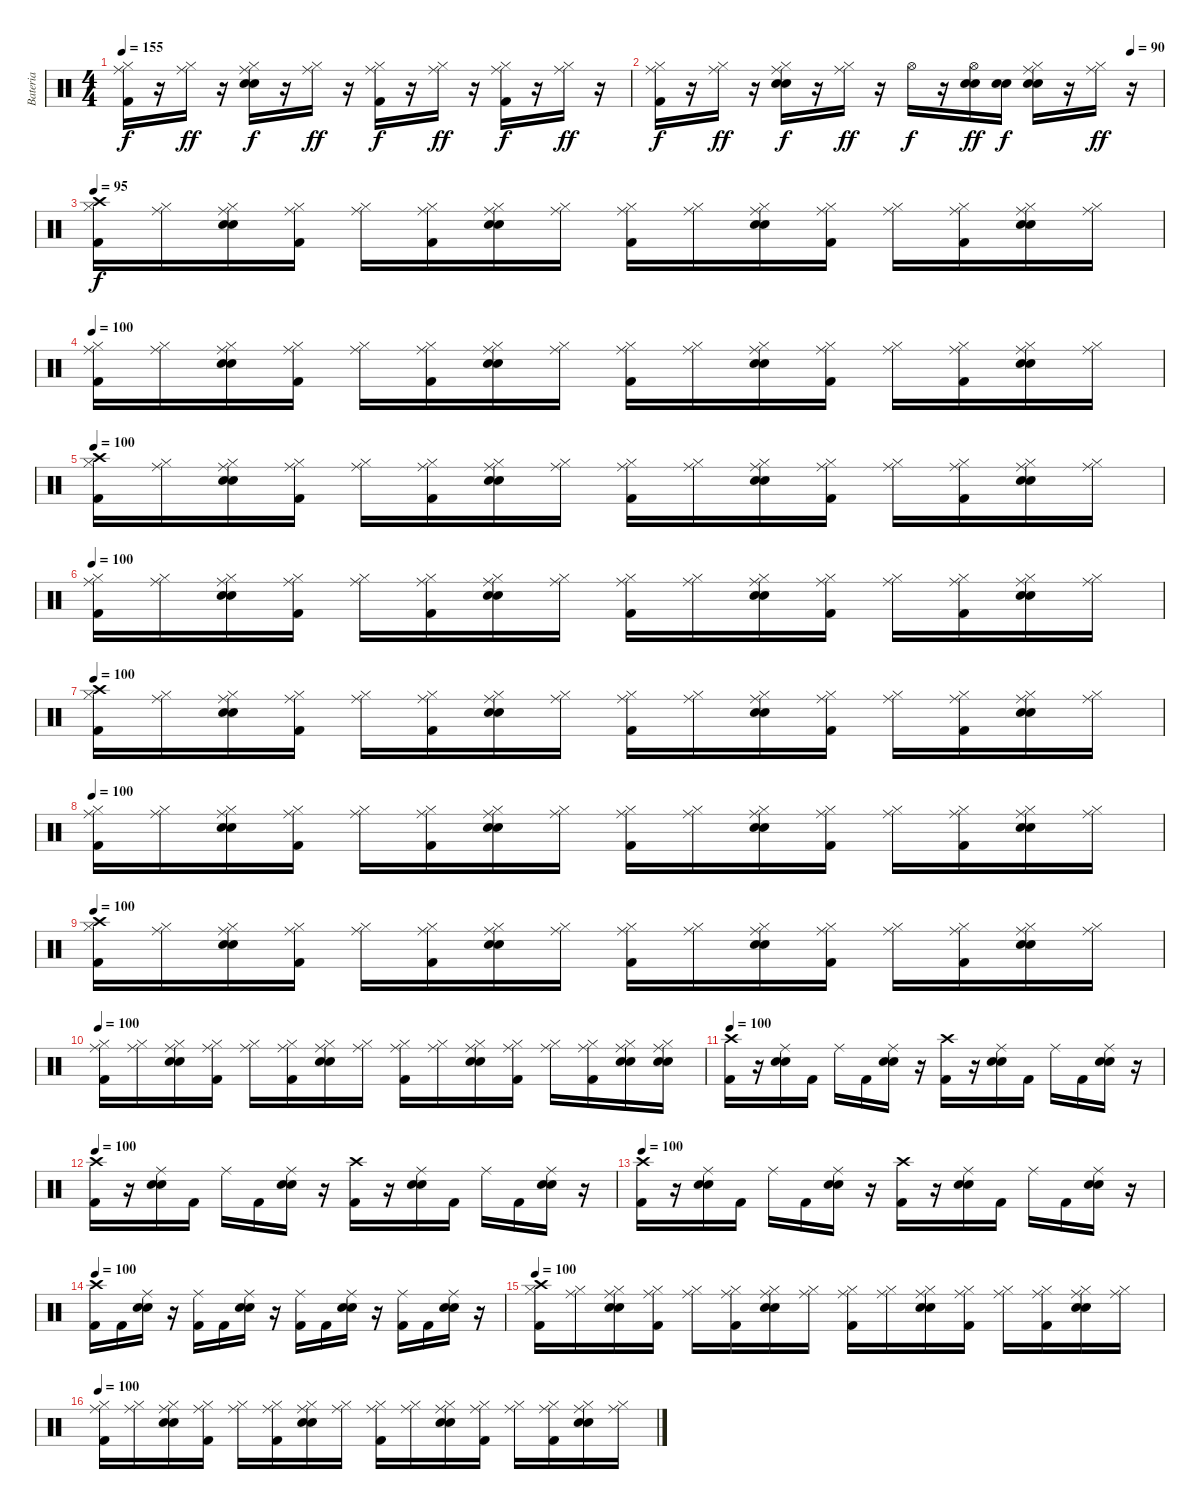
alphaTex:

\track ("Bateria" "Bateria") {instrument percussion}
\staff {score}
\articulation defaults
\ts (4 4)
\tempo 155
\clef neutral
\ks c
("Ride (middle)" "Hi-Hat (closed)" "Kick (hit) 2").16{dy f} r.16 ("Ride (middle)" "Hi-Hat (closed)").16{dy ff} r.16 ("Ride (middle)" "Hi-Hat (closed)" "Snare (hit) 2" "Electric Snare (hit)").16{dy f} r.16 ("Ride (middle)" "Hi-Hat (closed)").16{dy ff} r.16 ("Ride (middle)" "Hi-Hat (closed)" "Kick (hit) 2").16{dy f} r.16 ("Ride (middle)" "Hi-Hat (closed)").16{dy ff} r.16 ("Ride (middle)" "Hi-Hat (closed)" "Kick (hit) 2").16{dy f} r.16 ("Ride (middle)" "Hi-Hat (closed)").16{dy ff} r.16 |
\tempo (90 0.9375)
("Ride (middle)" "Hi-Hat (closed)" "Kick (hit) 2").16{dy f} r.16 ("Ride (middle)" "Hi-Hat (closed)").16{dy ff} r.16 ("Ride (middle)" "Hi-Hat (closed)" "Snare (hit) 2" "Electric Snare (hit)").16{dy f} r.16 ("Ride (middle)" "Hi-Hat (closed)").16{dy ff} r.16 "Hi-Hat (open)".16{dy f} r.16 ("Hi-Hat (open)" "Snare (hit) 2" "Electric Snare (hit)").16{dy ff} ("Snare (hit) 2" "Electric Snare (hit)").16{dy f} ("Ride (middle)" "Hi-Hat (closed)" "Snare (hit) 2" "Electric Snare (hit)").16 r.16 ("Ride (middle)" "Hi-Hat (closed)").16{dy ff} r.16 |
\tempo 95
("Crash high (hit)" "Hi-Hat (closed)" "Kick (hit) 2").16{dy f} ("Ride (middle)" "Hi-Hat (closed)").16 ("Ride (middle)" "Hi-Hat (closed)" "Snare (hit) 2" "Electric Snare (hit)").16 ("Ride (middle)" "Hi-Hat (closed)" "Kick (hit) 2").16 ("Ride (middle)" "Hi-Hat (closed)").16 ("Ride (middle)" "Hi-Hat (closed)" "Kick (hit) 2").16 ("Ride (middle)" "Hi-Hat (closed)" "Snare (hit) 2" "Electric Snare (hit)").16 ("Ride (middle)" "Hi-Hat (closed)").16 ("Ride (middle)" "Hi-Hat (closed)" "Kick (hit) 2").16 ("Ride (middle)" "Hi-Hat (closed)").16 ("Ride (middle)" "Hi-Hat (closed)" "Snare (hit) 2" "Electric Snare (hit)").16 ("Ride (middle)" "Hi-Hat (closed)" "Kick (hit) 2").16 ("Ride (middle)" "Hi-Hat (closed)").16 ("Ride (middle)" "Hi-Hat (closed)" "Kick (hit) 2").16 ("Ride (middle)" "Hi-Hat (closed)" "Snare (hit) 2" "Electric Snare (hit)").16 ("Ride (middle)" "Hi-Hat (closed)").16 |
\tempo 100
("Ride (middle)" "Hi-Hat (closed)" "Kick (hit) 2").16 ("Ride (middle)" "Hi-Hat (closed)").16 ("Ride (middle)" "Hi-Hat (closed)" "Snare (hit) 2" "Electric Snare (hit)").16 ("Ride (middle)" "Hi-Hat (closed)" "Kick (hit) 2").16 ("Ride (middle)" "Hi-Hat (closed)").16 ("Ride (middle)" "Hi-Hat (closed)" "Kick (hit) 2").16 ("Ride (middle)" "Hi-Hat (closed)" "Snare (hit) 2" "Electric Snare (hit)").16 ("Ride (middle)" "Hi-Hat (closed)").16 ("Ride (middle)" "Hi-Hat (closed)" "Kick (hit) 2").16 ("Ride (middle)" "Hi-Hat (closed)").16 ("Ride (middle)" "Hi-Hat (closed)" "Snare (hit) 2" "Electric Snare (hit)").16 ("Ride (middle)" "Hi-Hat (closed)" "Kick (hit) 2").16 ("Ride (middle)" "Hi-Hat (closed)").16 ("Ride (middle)" "Hi-Hat (closed)" "Kick (hit) 2").16 ("Ride (middle)" "Hi-Hat (closed)" "Snare (hit) 2" "Electric Snare (hit)").16 ("Ride (middle)" "Hi-Hat (closed)").16 |
\tempo 100
("Crash high (hit)" "Hi-Hat (closed)" "Kick (hit) 2").16 ("Ride (middle)" "Hi-Hat (closed)").16 ("Ride (middle)" "Hi-Hat (closed)" "Snare (hit) 2" "Electric Snare (hit)").16 ("Ride (middle)" "Hi-Hat (closed)" "Kick (hit) 2").16 ("Ride (middle)" "Hi-Hat (closed)").16 ("Ride (middle)" "Hi-Hat (closed)" "Kick (hit) 2").16 ("Ride (middle)" "Hi-Hat (closed)" "Snare (hit) 2" "Electric Snare (hit)").16 ("Ride (middle)" "Hi-Hat (closed)").16 ("Ride (middle)" "Hi-Hat (closed)" "Kick (hit) 2").16 ("Ride (middle)" "Hi-Hat (closed)").16 ("Ride (middle)" "Hi-Hat (closed)" "Snare (hit) 2" "Electric Snare (hit)").16 ("Ride (middle)" "Hi-Hat (closed)" "Kick (hit) 2").16 ("Ride (middle)" "Hi-Hat (closed)").16 ("Ride (middle)" "Hi-Hat (closed)" "Kick (hit) 2").16 ("Ride (middle)" "Hi-Hat (closed)" "Snare (hit) 2" "Electric Snare (hit)").16 ("Ride (middle)" "Hi-Hat (closed)").16 |
\tempo 100
("Ride (middle)" "Hi-Hat (closed)" "Kick (hit) 2").16 ("Ride (middle)" "Hi-Hat (closed)").16 ("Ride (middle)" "Hi-Hat (closed)" "Snare (hit) 2" "Electric Snare (hit)").16 ("Ride (middle)" "Hi-Hat (closed)" "Kick (hit) 2").16 ("Ride (middle)" "Hi-Hat (closed)").16 ("Ride (middle)" "Hi-Hat (closed)" "Kick (hit) 2").16 ("Ride (middle)" "Hi-Hat (closed)" "Snare (hit) 2" "Electric Snare (hit)").16 ("Ride (middle)" "Hi-Hat (closed)").16 ("Ride (middle)" "Hi-Hat (closed)" "Kick (hit) 2").16 ("Ride (middle)" "Hi-Hat (closed)").16 ("Ride (middle)" "Hi-Hat (closed)" "Snare (hit) 2" "Electric Snare (hit)").16 ("Ride (middle)" "Hi-Hat (closed)" "Kick (hit) 2").16 ("Ride (middle)" "Hi-Hat (closed)").16 ("Ride (middle)" "Hi-Hat (closed)" "Kick (hit) 2").16 ("Ride (middle)" "Hi-Hat (closed)" "Snare (hit) 2" "Electric Snare (hit)").16 ("Ride (middle)" "Hi-Hat (closed)").16 |
\tempo 100
("Crash high (hit)" "Hi-Hat (closed)" "Kick (hit) 2").16 ("Ride (middle)" "Hi-Hat (closed)").16 ("Ride (middle)" "Hi-Hat (closed)" "Snare (hit) 2" "Electric Snare (hit)").16 ("Ride (middle)" "Hi-Hat (closed)" "Kick (hit) 2").16 ("Ride (middle)" "Hi-Hat (closed)").16 ("Ride (middle)" "Hi-Hat (closed)" "Kick (hit) 2").16 ("Ride (middle)" "Hi-Hat (closed)" "Snare (hit) 2" "Electric Snare (hit)").16 ("Ride (middle)" "Hi-Hat (closed)").16 ("Ride (middle)" "Hi-Hat (closed)" "Kick (hit) 2").16 ("Ride (middle)" "Hi-Hat (closed)").16 ("Ride (middle)" "Hi-Hat (closed)" "Snare (hit) 2" "Electric Snare (hit)").16 ("Ride (middle)" "Hi-Hat (closed)" "Kick (hit) 2").16 ("Ride (middle)" "Hi-Hat (closed)").16 ("Ride (middle)" "Hi-Hat (closed)" "Kick (hit) 2").16 ("Ride (middle)" "Hi-Hat (closed)" "Snare (hit) 2" "Electric Snare (hit)").16 ("Ride (middle)" "Hi-Hat (closed)").16 |
\tempo 100
("Ride (middle)" "Hi-Hat (closed)" "Kick (hit) 2").16 ("Ride (middle)" "Hi-Hat (closed)").16 ("Ride (middle)" "Hi-Hat (closed)" "Snare (hit) 2" "Electric Snare (hit)").16 ("Ride (middle)" "Hi-Hat (closed)" "Kick (hit) 2").16 ("Ride (middle)" "Hi-Hat (closed)").16 ("Ride (middle)" "Hi-Hat (closed)" "Kick (hit) 2").16 ("Ride (middle)" "Hi-Hat (closed)" "Snare (hit) 2" "Electric Snare (hit)").16 ("Ride (middle)" "Hi-Hat (closed)").16 ("Ride (middle)" "Hi-Hat (closed)" "Kick (hit) 2").16 ("Ride (middle)" "Hi-Hat (closed)").16 ("Ride (middle)" "Hi-Hat (closed)" "Snare (hit) 2" "Electric Snare (hit)").16 ("Ride (middle)" "Hi-Hat (closed)" "Kick (hit) 2").16 ("Ride (middle)" "Hi-Hat (closed)").16 ("Ride (middle)" "Hi-Hat (closed)" "Kick (hit) 2").16 ("Ride (middle)" "Hi-Hat (closed)" "Snare (hit) 2" "Electric Snare (hit)").16 ("Ride (middle)" "Hi-Hat (closed)").16 |
\tempo 100
("Crash high (hit)" "Hi-Hat (closed)" "Kick (hit) 2").16 ("Ride (middle)" "Hi-Hat (closed)").16 ("Ride (middle)" "Hi-Hat (closed)" "Snare (hit) 2" "Electric Snare (hit)").16 ("Ride (middle)" "Hi-Hat (closed)" "Kick (hit) 2").16 ("Ride (middle)" "Hi-Hat (closed)").16 ("Ride (middle)" "Hi-Hat (closed)" "Kick (hit) 2").16 ("Ride (middle)" "Hi-Hat (closed)" "Snare (hit) 2" "Electric Snare (hit)").16 ("Ride (middle)" "Hi-Hat (closed)").16 ("Ride (middle)" "Hi-Hat (closed)" "Kick (hit) 2").16 ("Ride (middle)" "Hi-Hat (closed)").16 ("Ride (middle)" "Hi-Hat (closed)" "Snare (hit) 2" "Electric Snare (hit)").16 ("Ride (middle)" "Hi-Hat (closed)" "Kick (hit) 2").16 ("Ride (middle)" "Hi-Hat (closed)").16 ("Ride (middle)" "Hi-Hat (closed)" "Kick (hit) 2").16 ("Ride (middle)" "Hi-Hat (closed)" "Snare (hit) 2" "Electric Snare (hit)").16 ("Ride (middle)" "Hi-Hat (closed)").16 |
\tempo 100
("Ride (middle)" "Hi-Hat (closed)" "Kick (hit) 2").16 ("Ride (middle)" "Hi-Hat (closed)").16 ("Ride (middle)" "Hi-Hat (closed)" "Snare (hit) 2" "Electric Snare (hit)").16 ("Ride (middle)" "Hi-Hat (closed)" "Kick (hit) 2").16 ("Ride (middle)" "Hi-Hat (closed)").16 ("Ride (middle)" "Hi-Hat (closed)" "Kick (hit) 2").16 ("Ride (middle)" "Hi-Hat (closed)" "Snare (hit) 2" "Electric Snare (hit)").16 ("Ride (middle)" "Hi-Hat (closed)").16 ("Ride (middle)" "Hi-Hat (closed)" "Kick (hit) 2").16 ("Ride (middle)" "Hi-Hat (closed)").16 ("Ride (middle)" "Hi-Hat (closed)" "Snare (hit) 2" "Electric Snare (hit)").16 ("Ride (middle)" "Hi-Hat (closed)" "Kick (hit) 2").16 ("Ride (middle)" "Hi-Hat (closed)").16 ("Ride (middle)" "Hi-Hat (closed)" "Kick (hit) 2").16 ("Ride (middle)" "Hi-Hat (closed)" "Snare (hit) 2" "Electric Snare (hit)").16 ("Ride (middle)" "Hi-Hat (closed)" "Snare (hit) 2" "Electric Snare (hit)").16 |
\tempo 100
("Crash high (hit)" "Kick (hit) 2").16 r.16 ("Ride (middle)" "Snare (hit) 2" "Electric Snare (hit)").16 "Kick (hit) 2".16 "Ride (middle)".16 "Kick (hit) 2".16 ("Ride (middle)" "Snare (hit) 2" "Electric Snare (hit)").16 r.16 ("Crash high (hit)" "Kick (hit) 2").16 r.16 ("Ride (middle)" "Snare (hit) 2" "Electric Snare (hit)").16 "Kick (hit) 2".16 "Ride (middle)".16 "Kick (hit) 2".16 ("Ride (middle)" "Snare (hit) 2" "Electric Snare (hit)").16 r.16 |
\tempo 100
("Crash high (hit)" "Kick (hit) 2").16 r.16 ("Ride (middle)" "Snare (hit) 2" "Electric Snare (hit)").16 "Kick (hit) 2".16 "Ride (middle)".16 "Kick (hit) 2".16 ("Ride (middle)" "Snare (hit) 2" "Electric Snare (hit)").16 r.16 ("Crash high (hit)" "Kick (hit) 2").16 r.16 ("Ride (middle)" "Snare (hit) 2" "Electric Snare (hit)").16 "Kick (hit) 2".16 "Ride (middle)".16 "Kick (hit) 2".16 ("Ride (middle)" "Snare (hit) 2" "Electric Snare (hit)").16 r.16 |
\tempo 100
("Crash high (hit)" "Kick (hit) 2").16 r.16 ("Ride (middle)" "Snare (hit) 2" "Electric Snare (hit)").16 "Kick (hit) 2".16 "Ride (middle)".16 "Kick (hit) 2".16 ("Ride (middle)" "Snare (hit) 2" "Electric Snare (hit)").16 r.16 ("Crash high (hit)" "Kick (hit) 2").16 r.16 ("Ride (middle)" "Snare (hit) 2" "Electric Snare (hit)").16 "Kick (hit) 2".16 "Ride (middle)".16 "Kick (hit) 2".16 ("Ride (middle)" "Snare (hit) 2" "Electric Snare (hit)").16 r.16 |
\tempo 100
("Crash high (hit)" "Kick (hit) 2").16 "Kick (hit) 2".16 ("Ride (middle)" "Snare (hit) 2" "Electric Snare (hit)").16 r.16 ("Ride (middle)" "Kick (hit) 2").16 "Kick (hit) 2".16 ("Ride (middle)" "Snare (hit) 2" "Electric Snare (hit)").16 r.16 ("Ride (middle)" "Kick (hit) 2").16 "Kick (hit) 2".16 ("Ride (middle)" "Snare (hit) 2" "Electric Snare (hit)").16 r.16 ("Ride (middle)" "Kick (hit) 2").16 "Kick (hit) 2".16 ("Ride (middle)" "Snare (hit) 2" "Electric Snare (hit)").16 r.16 |
\tempo 100
("Crash high (hit)" "Hi-Hat (closed)" "Kick (hit) 2").16 ("Ride (middle)" "Hi-Hat (closed)").16 ("Ride (middle)" "Hi-Hat (closed)" "Snare (hit) 2" "Electric Snare (hit)").16 ("Ride (middle)" "Hi-Hat (closed)" "Kick (hit) 2").16 ("Ride (middle)" "Hi-Hat (closed)").16 ("Ride (middle)" "Hi-Hat (closed)" "Kick (hit) 2").16 ("Ride (middle)" "Hi-Hat (closed)" "Snare (hit) 2" "Electric Snare (hit)").16 ("Ride (middle)" "Hi-Hat (closed)").16 ("Ride (middle)" "Hi-Hat (closed)" "Kick (hit) 2").16 ("Ride (middle)" "Hi-Hat (closed)").16 ("Ride (middle)" "Hi-Hat (closed)" "Snare (hit) 2" "Electric Snare (hit)").16 ("Ride (middle)" "Hi-Hat (closed)" "Kick (hit) 2").16 ("Ride (middle)" "Hi-Hat (closed)").16 ("Ride (middle)" "Hi-Hat (closed)" "Kick (hit) 2").16 ("Ride (middle)" "Hi-Hat (closed)" "Snare (hit) 2" "Electric Snare (hit)").16 ("Ride (middle)" "Hi-Hat (closed)").16 |
\tempo 100
("Ride (middle)" "Hi-Hat (closed)" "Kick (hit) 2").16 ("Ride (middle)" "Hi-Hat (closed)").16 ("Ride (middle)" "Hi-Hat (closed)" "Snare (hit) 2" "Electric Snare (hit)").16 ("Ride (middle)" "Hi-Hat (closed)" "Kick (hit) 2").16 ("Ride (middle)" "Hi-Hat (closed)").16 ("Ride (middle)" "Hi-Hat (closed)" "Kick (hit) 2").16 ("Ride (middle)" "Hi-Hat (closed)" "Snare (hit) 2" "Electric Snare (hit)").16 ("Ride (middle)" "Hi-Hat (closed)").16 ("Ride (middle)" "Hi-Hat (closed)" "Kick (hit) 2").16 ("Ride (middle)" "Hi-Hat (closed)").16 ("Ride (middle)" "Hi-Hat (closed)" "Snare (hit) 2" "Electric Snare (hit)").16 ("Ride (middle)" "Hi-Hat (closed)" "Kick (hit) 2").16 ("Ride (middle)" "Hi-Hat (closed)").16 ("Ride (middle)" "Hi-Hat (closed)" "Kick (hit) 2").16 ("Ride (middle)" "Hi-Hat (closed)" "Snare (hit) 2" "Electric Snare (hit)").16 ("Ride (middle)" "Hi-Hat (closed)").16
